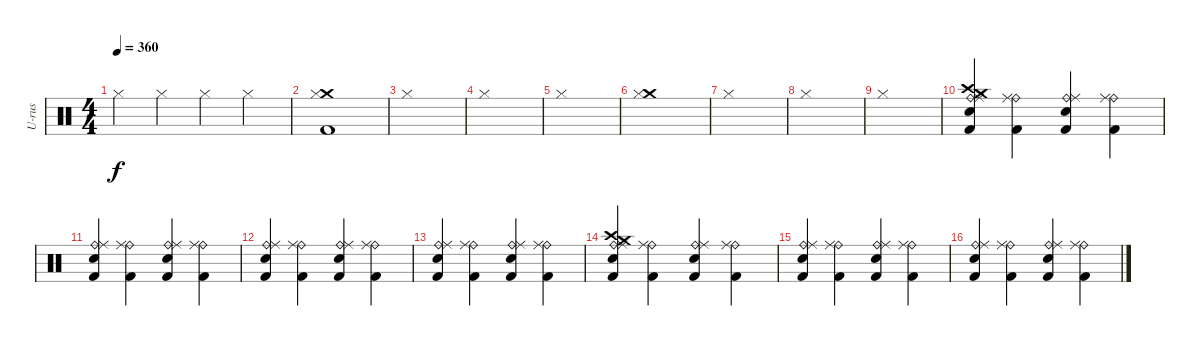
\track ("U-rus" "U-rus") {instrument percussion}
\staff {score}
\articulation defaults
\ts (4 4)
\tempo 360
\clef neutral
\ks c "Hi-Hat (closed)".4{dy f} "Hi-Hat (closed)".4 "Hi-Hat (closed)".4 "Hi-Hat (closed)".4
|
("Kick (hit) 2" "Crash medium (hit)" "Hi-Hat (closed)").1 |
"Hi-Hat (closed)".1 |
"Hi-Hat (closed)".1 |
"Hi-Hat (closed)".1 |
("Crash medium (hit)" "Hi-Hat (closed)").1 |
"Hi-Hat (closed)".1 |
"Hi-Hat (closed)".1 |
"Hi-Hat (closed)".1 |
("Crash medium (hit)" "Crash high (hit)" "Ride (bell)" "Ride (middle)" "Snare (hit) 2" "Kick (hit) 2").4 ("Ride (bell)" "Ride (middle)" "Kick (hit) 2").4 ("Ride (bell)" "Ride (middle)" "Snare (hit) 2" "Kick (hit) 2").4 ("Ride (bell)" "Ride (middle)" "Kick (hit) 2").4 |
("Ride (bell)" "Ride (middle)" "Snare (hit) 2" "Kick (hit) 2").4 ("Ride (bell)" "Ride (middle)" "Kick (hit) 2").4 ("Ride (bell)" "Ride (middle)" "Snare (hit) 2" "Kick (hit) 2").4 ("Ride (bell)" "Ride (middle)" "Kick (hit) 2").4 |
("Ride (bell)" "Ride (middle)" "Snare (hit) 2" "Kick (hit) 2").4 ("Ride (bell)" "Ride (middle)" "Kick (hit) 2").4 ("Ride (bell)" "Ride (middle)" "Snare (hit) 2" "Kick (hit) 2").4 ("Ride (bell)" "Ride (middle)" "Kick (hit) 2").4 |
("Ride (bell)" "Ride (middle)" "Snare (hit) 2" "Kick (hit) 2").4 ("Ride (bell)" "Ride (middle)" "Kick (hit) 2").4 ("Ride (bell)" "Ride (middle)" "Snare (hit) 2" "Kick (hit) 2").4 ("Ride (bell)" "Ride (middle)" "Kick (hit) 2").4 |
("Crash medium (hit)" "Crash high (hit)" "Ride (bell)" "Ride (middle)" "Snare (hit) 2" "Kick (hit) 2").4 ("Ride (bell)" "Ride (middle)" "Kick (hit) 2").4 ("Ride (bell)" "Ride (middle)" "Snare (hit) 2" "Kick (hit) 2").4 ("Ride (bell)" "Ride (middle)" "Kick (hit) 2").4 |
("Ride (bell)" "Ride (middle)" "Snare (hit) 2" "Kick (hit) 2").4 ("Ride (bell)" "Ride (middle)" "Kick (hit) 2").4 ("Ride (bell)" "Ride (middle)" "Snare (hit) 2" "Kick (hit) 2").4 ("Ride (bell)" "Ride (middle)" "Kick (hit) 2").4 |
("Ride (bell)" "Ride (middle)" "Snare (hit) 2" "Kick (hit) 2").4 ("Ride (bell)" "Ride (middle)" "Kick (hit) 2").4 ("Ride (bell)" "Ride (middle)" "Snare (hit) 2" "Kick (hit) 2").4 ("Ride (bell)" "Ride (middle)" "Kick (hit) 2").4
